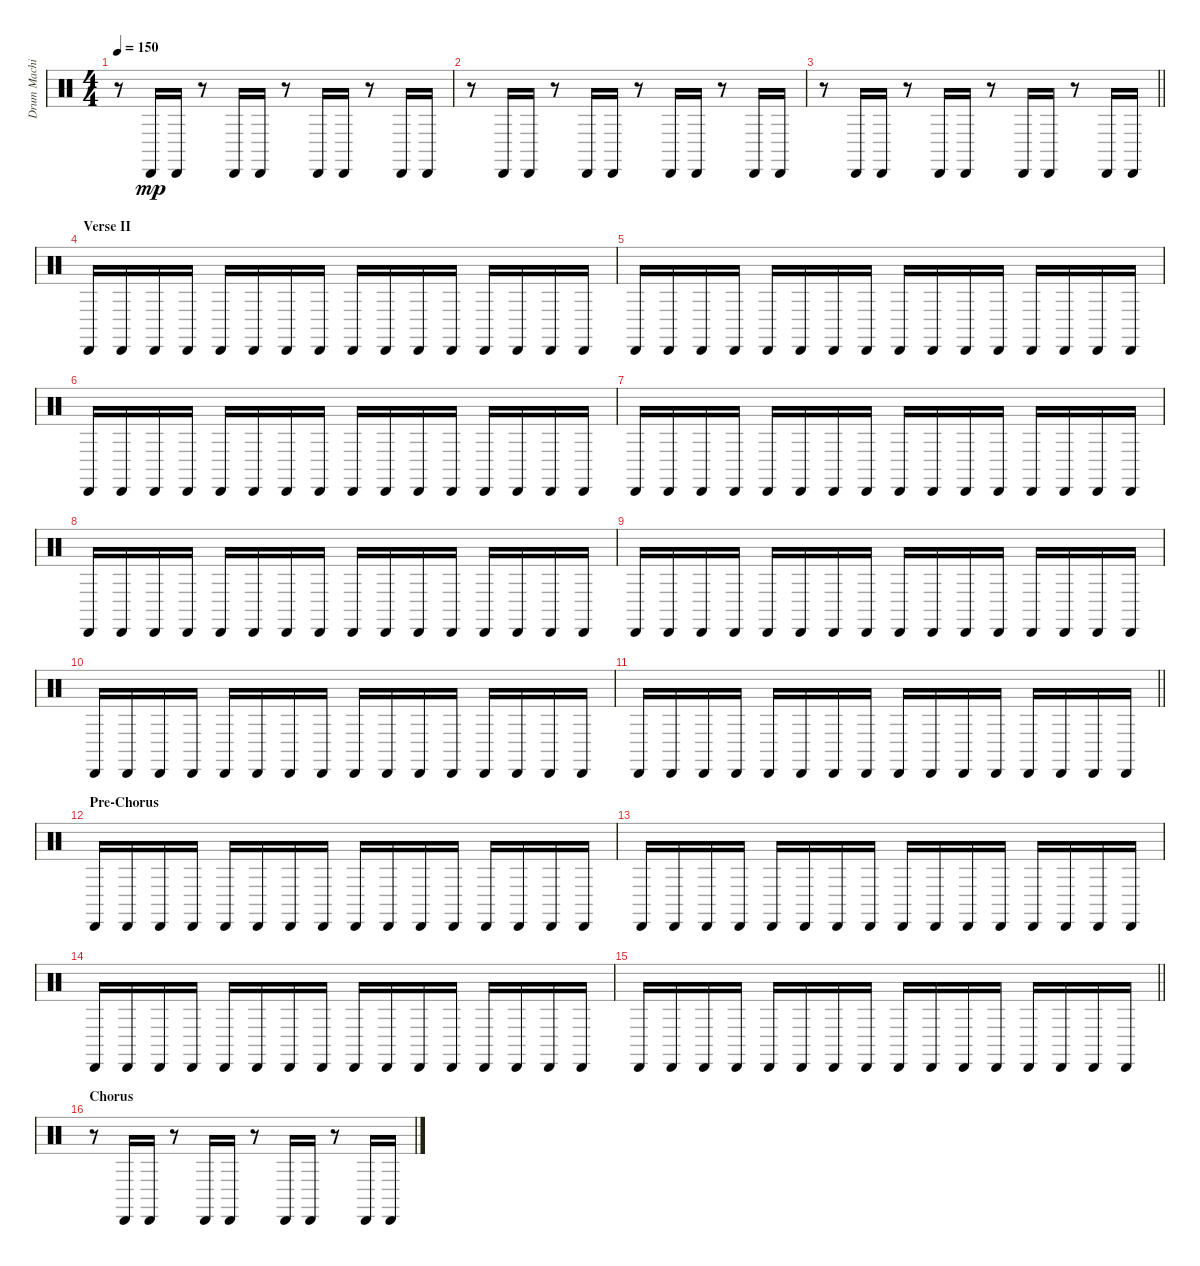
\track ("Drum Machine" "Drum Machi") {instrument percussion}
\staff {score}
\articulation defaults
\ts (4 4)
\tempo 150
\clef neutral
\ks c
r.8{dy mp} "Cabasa (hit)".16 "Cabasa (hit)".16 r.8 "Cabasa (hit)".16 "Cabasa (hit)".16 r.8 "Cabasa (hit)".16 "Cabasa (hit)".16 r.8 "Cabasa (hit)".16 "Cabasa (hit)".16 |
r.8 "Cabasa (hit)".16 "Cabasa (hit)".16 r.8 "Cabasa (hit)".16 "Cabasa (hit)".16 r.8 "Cabasa (hit)".16 "Cabasa (hit)".16 r.8 "Cabasa (hit)".16 "Cabasa (hit)".16 |
\barLineRight lightlight
r.8 "Cabasa (hit)".16 "Cabasa (hit)".16 r.8 "Cabasa (hit)".16 "Cabasa (hit)".16 r.8 "Cabasa (hit)".16 "Cabasa (hit)".16 r.8 "Cabasa (hit)".16 "Cabasa (hit)".16 |
\section ("" "Verse II")
"Cabasa (hit)".16 "Cabasa (hit)".16 "Cabasa (hit)".16 "Cabasa (hit)".16 "Cabasa (hit)".16 "Cabasa (hit)".16 "Cabasa (hit)".16 "Cabasa (hit)".16 "Cabasa (hit)".16 "Cabasa (hit)".16 "Cabasa (hit)".16 "Cabasa (hit)".16 "Cabasa (hit)".16 "Cabasa (hit)".16 "Cabasa (hit)".16 "Cabasa (hit)".16 |
"Cabasa (hit)".16 "Cabasa (hit)".16 "Cabasa (hit)".16 "Cabasa (hit)".16 "Cabasa (hit)".16 "Cabasa (hit)".16 "Cabasa (hit)".16 "Cabasa (hit)".16 "Cabasa (hit)".16 "Cabasa (hit)".16 "Cabasa (hit)".16 "Cabasa (hit)".16 "Cabasa (hit)".16 "Cabasa (hit)".16 "Cabasa (hit)".16 "Cabasa (hit)".16 |
"Cabasa (hit)".16 "Cabasa (hit)".16 "Cabasa (hit)".16 "Cabasa (hit)".16 "Cabasa (hit)".16 "Cabasa (hit)".16 "Cabasa (hit)".16 "Cabasa (hit)".16 "Cabasa (hit)".16 "Cabasa (hit)".16 "Cabasa (hit)".16 "Cabasa (hit)".16 "Cabasa (hit)".16 "Cabasa (hit)".16 "Cabasa (hit)".16 "Cabasa (hit)".16 |
"Cabasa (hit)".16 "Cabasa (hit)".16 "Cabasa (hit)".16 "Cabasa (hit)".16 "Cabasa (hit)".16 "Cabasa (hit)".16 "Cabasa (hit)".16 "Cabasa (hit)".16 "Cabasa (hit)".16 "Cabasa (hit)".16 "Cabasa (hit)".16 "Cabasa (hit)".16 "Cabasa (hit)".16 "Cabasa (hit)".16 "Cabasa (hit)".16 "Cabasa (hit)".16 |
"Cabasa (hit)".16 "Cabasa (hit)".16 "Cabasa (hit)".16 "Cabasa (hit)".16 "Cabasa (hit)".16 "Cabasa (hit)".16 "Cabasa (hit)".16 "Cabasa (hit)".16 "Cabasa (hit)".16 "Cabasa (hit)".16 "Cabasa (hit)".16 "Cabasa (hit)".16 "Cabasa (hit)".16 "Cabasa (hit)".16 "Cabasa (hit)".16 "Cabasa (hit)".16 |
"Cabasa (hit)".16 "Cabasa (hit)".16 "Cabasa (hit)".16 "Cabasa (hit)".16 "Cabasa (hit)".16 "Cabasa (hit)".16 "Cabasa (hit)".16 "Cabasa (hit)".16 "Cabasa (hit)".16 "Cabasa (hit)".16 "Cabasa (hit)".16 "Cabasa (hit)".16 "Cabasa (hit)".16 "Cabasa (hit)".16 "Cabasa (hit)".16 "Cabasa (hit)".16 |
"Cabasa (hit)".16 "Cabasa (hit)".16 "Cabasa (hit)".16 "Cabasa (hit)".16 "Cabasa (hit)".16 "Cabasa (hit)".16 "Cabasa (hit)".16 "Cabasa (hit)".16 "Cabasa (hit)".16 "Cabasa (hit)".16 "Cabasa (hit)".16 "Cabasa (hit)".16 "Cabasa (hit)".16 "Cabasa (hit)".16 "Cabasa (hit)".16 "Cabasa (hit)".16 |
\barLineRight lightlight "Cabasa (hit)".16 "Cabasa (hit)".16 "Cabasa (hit)".16 "Cabasa (hit)".16 "Cabasa (hit)".16 "Cabasa (hit)".16 "Cabasa (hit)".16 "Cabasa (hit)".16 "Cabasa (hit)".16 "Cabasa (hit)".16 "Cabasa (hit)".16 "Cabasa (hit)".16 "Cabasa (hit)".16 "Cabasa (hit)".16 "Cabasa (hit)".16 "Cabasa (hit)".16
|
\section ("" "Pre-Chorus")
"Cabasa (hit)".16 "Cabasa (hit)".16 "Cabasa (hit)".16 "Cabasa (hit)".16 "Cabasa (hit)".16 "Cabasa (hit)".16 "Cabasa (hit)".16 "Cabasa (hit)".16 "Cabasa (hit)".16 "Cabasa (hit)".16 "Cabasa (hit)".16 "Cabasa (hit)".16 "Cabasa (hit)".16 "Cabasa (hit)".16 "Cabasa (hit)".16 "Cabasa (hit)".16 |
"Cabasa (hit)".16 "Cabasa (hit)".16 "Cabasa (hit)".16 "Cabasa (hit)".16 "Cabasa (hit)".16 "Cabasa (hit)".16 "Cabasa (hit)".16 "Cabasa (hit)".16 "Cabasa (hit)".16 "Cabasa (hit)".16 "Cabasa (hit)".16 "Cabasa (hit)".16 "Cabasa (hit)".16 "Cabasa (hit)".16 "Cabasa (hit)".16 "Cabasa (hit)".16 |
"Cabasa (hit)".16 "Cabasa (hit)".16 "Cabasa (hit)".16 "Cabasa (hit)".16 "Cabasa (hit)".16 "Cabasa (hit)".16 "Cabasa (hit)".16 "Cabasa (hit)".16 "Cabasa (hit)".16 "Cabasa (hit)".16 "Cabasa (hit)".16 "Cabasa (hit)".16 "Cabasa (hit)".16 "Cabasa (hit)".16 "Cabasa (hit)".16 "Cabasa (hit)".16 |
\barLineRight lightlight "Cabasa (hit)".16 "Cabasa (hit)".16 "Cabasa (hit)".16 "Cabasa (hit)".16 "Cabasa (hit)".16 "Cabasa (hit)".16 "Cabasa (hit)".16 "Cabasa (hit)".16 "Cabasa (hit)".16 "Cabasa (hit)".16 "Cabasa (hit)".16 "Cabasa (hit)".16 "Cabasa (hit)".16 "Cabasa (hit)".16 "Cabasa (hit)".16 "Cabasa (hit)".16
|
\section ("" "Chorus")
r.8 "Cabasa (hit)".16 "Cabasa (hit)".16 r.8 "Cabasa (hit)".16 "Cabasa (hit)".16 r.8 "Cabasa (hit)".16 "Cabasa (hit)".16 r.8 "Cabasa (hit)".16 "Cabasa (hit)".16
